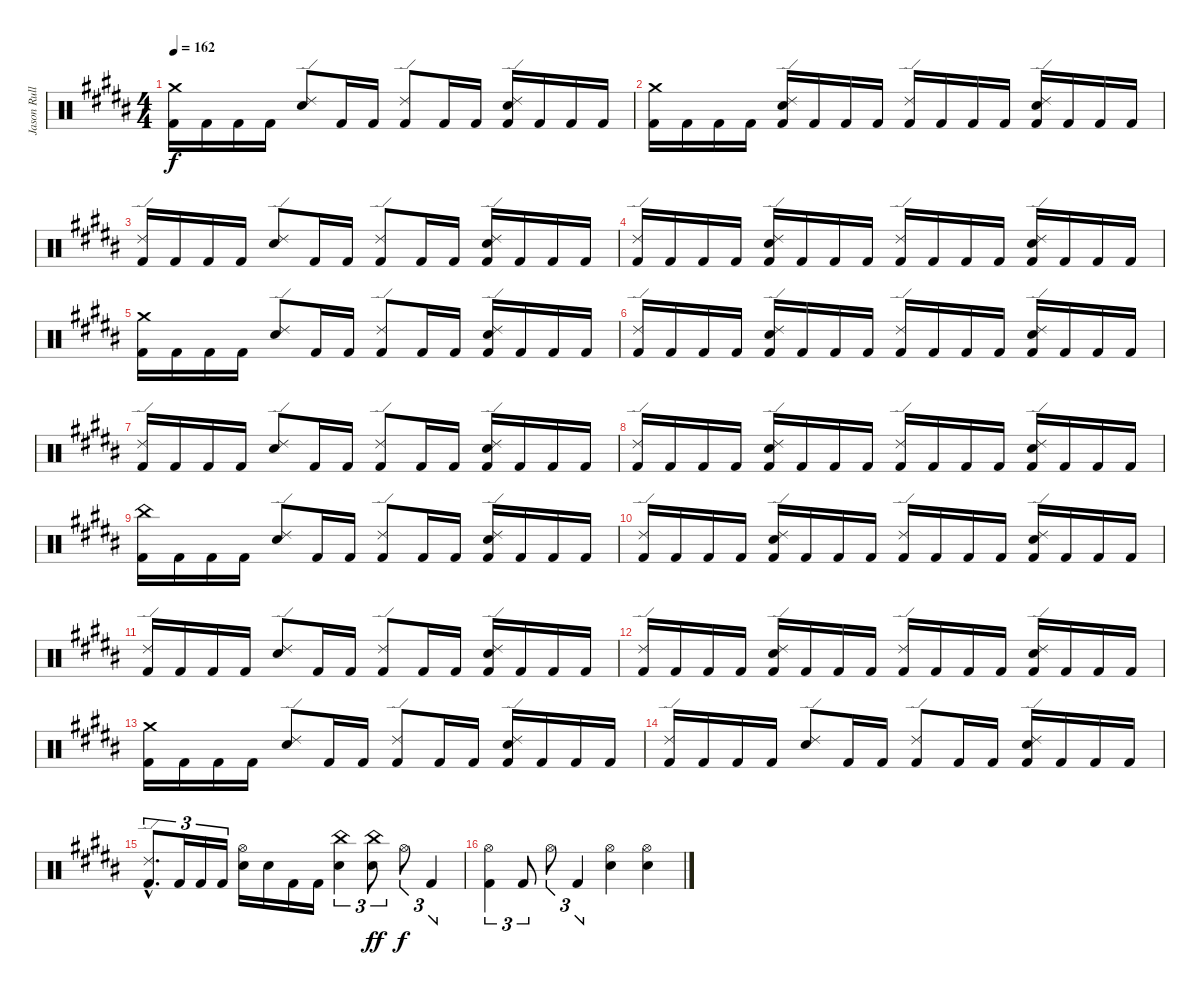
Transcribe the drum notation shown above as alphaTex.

\track ("Jason Rullo" "Jason Rull") {instrument percussion}
\staff {score}
\articulation defaults
\ts (4 4)
\tempo 162
\clef neutral
\ks g#minor
("Kick (hit) 2" "Crash medium (hit)").16{dy f} "Kick (hit) 2".16 "Kick (hit) 2".16 "Kick (hit) 2".16 ("Electric Snare (hit)" "Ride (edge) 2").8 "Kick (hit) 2".16 "Kick (hit) 2".16 ("Kick (hit) 2" "Ride (edge) 2").8 "Kick (hit) 2".16 "Kick (hit) 2".16 ("Kick (hit) 2" "Electric Snare (hit)" "Ride (edge) 2").16 "Kick (hit) 2".16 "Kick (hit) 2".16 "Kick (hit) 2".16 |
("Crash medium (hit)" "Kick (hit) 2").16 "Kick (hit) 2".16 "Kick (hit) 2".16 "Kick (hit) 2".16 ("Electric Snare (hit)" "Ride (edge) 2" "Kick (hit) 2").16 "Kick (hit) 2".16 "Kick (hit) 2".16 "Kick (hit) 2".16 ("Ride (edge) 2" "Kick (hit) 2").16 "Kick (hit) 2".16 "Kick (hit) 2".16 "Kick (hit) 2".16 ("Electric Snare (hit)" "Ride (edge) 2" "Kick (hit) 2").16 "Kick (hit) 2".16 "Kick (hit) 2".16 "Kick (hit) 2".16 |
("Ride (edge) 2" "Kick (hit) 2").16 "Kick (hit) 2".16 "Kick (hit) 2".16 "Kick (hit) 2".16 ("Electric Snare (hit)" "Ride (edge) 2").8 "Kick (hit) 2".16 "Kick (hit) 2".16 ("Kick (hit) 2" "Ride (edge) 2").8 "Kick (hit) 2".16 "Kick (hit) 2".16 ("Kick (hit) 2" "Electric Snare (hit)" "Ride (edge) 2").16 "Kick (hit) 2".16 "Kick (hit) 2".16 "Kick (hit) 2".16 |
("Ride (edge) 2" "Kick (hit) 2").16 "Kick (hit) 2".16 "Kick (hit) 2".16 "Kick (hit) 2".16 ("Electric Snare (hit)" "Ride (edge) 2" "Kick (hit) 2").16 "Kick (hit) 2".16 "Kick (hit) 2".16 "Kick (hit) 2".16 ("Ride (edge) 2" "Kick (hit) 2").16 "Kick (hit) 2".16 "Kick (hit) 2".16 "Kick (hit) 2".16 ("Electric Snare (hit)" "Ride (edge) 2" "Kick (hit) 2").16 "Kick (hit) 2".16 "Kick (hit) 2".16 "Kick (hit) 2".16 |
("Crash medium (hit)" "Kick (hit) 2").16 "Kick (hit) 2".16 "Kick (hit) 2".16 "Kick (hit) 2".16 ("Electric Snare (hit)" "Ride (edge) 2").8 "Kick (hit) 2".16 "Kick (hit) 2".16 ("Kick (hit) 2" "Ride (edge) 2").8 "Kick (hit) 2".16 "Kick (hit) 2".16 ("Kick (hit) 2" "Electric Snare (hit)" "Ride (edge) 2").16 "Kick (hit) 2".16 "Kick (hit) 2".16 "Kick (hit) 2".16 |
("Ride (edge) 2" "Kick (hit) 2").16 "Kick (hit) 2".16 "Kick (hit) 2".16 "Kick (hit) 2".16 ("Electric Snare (hit)" "Ride (edge) 2" "Kick (hit) 2").16 "Kick (hit) 2".16 "Kick (hit) 2".16 "Kick (hit) 2".16 ("Ride (edge) 2" "Kick (hit) 2").16 "Kick (hit) 2".16 "Kick (hit) 2".16 "Kick (hit) 2".16 ("Electric Snare (hit)" "Ride (edge) 2" "Kick (hit) 2").16 "Kick (hit) 2".16 "Kick (hit) 2".16 "Kick (hit) 2".16 |
("Ride (edge) 2" "Kick (hit) 2").16 "Kick (hit) 2".16 "Kick (hit) 2".16 "Kick (hit) 2".16 ("Electric Snare (hit)" "Ride (edge) 2").8 "Kick (hit) 2".16 "Kick (hit) 2".16 ("Kick (hit) 2" "Ride (edge) 2").8 "Kick (hit) 2".16 "Kick (hit) 2".16 ("Kick (hit) 2" "Electric Snare (hit)" "Ride (edge) 2").16 "Kick (hit) 2".16 "Kick (hit) 2".16 "Kick (hit) 2".16 |
("Ride (edge) 2" "Kick (hit) 2").16 "Kick (hit) 2".16 "Kick (hit) 2".16 "Kick (hit) 2".16 ("Electric Snare (hit)" "Ride (edge) 2" "Kick (hit) 2").16 "Kick (hit) 2".16 "Kick (hit) 2".16 "Kick (hit) 2".16 ("Ride (edge) 2" "Kick (hit) 2").16 "Kick (hit) 2".16 "Kick (hit) 2".16 "Kick (hit) 2".16 ("Electric Snare (hit)" "Ride (edge) 2" "Kick (hit) 2").16 "Kick (hit) 2".16 "Kick (hit) 2".16 "Kick (hit) 2".16 |
("China (hit)" "Kick (hit) 2").16 "Kick (hit) 2".16 "Kick (hit) 2".16 "Kick (hit) 2".16 ("Electric Snare (hit)" "Ride (edge) 2").8 "Kick (hit) 2".16 "Kick (hit) 2".16 ("Kick (hit) 2" "Ride (edge) 2").8 "Kick (hit) 2".16 "Kick (hit) 2".16 ("Kick (hit) 2" "Electric Snare (hit)" "Ride (edge) 2").16 "Kick (hit) 2".16 "Kick (hit) 2".16 "Kick (hit) 2".16 |
("Ride (edge) 2" "Kick (hit) 2").16 "Kick (hit) 2".16 "Kick (hit) 2".16 "Kick (hit) 2".16 ("Electric Snare (hit)" "Ride (edge) 2" "Kick (hit) 2").16 "Kick (hit) 2".16 "Kick (hit) 2".16 "Kick (hit) 2".16 ("Ride (edge) 2" "Kick (hit) 2").16 "Kick (hit) 2".16 "Kick (hit) 2".16 "Kick (hit) 2".16 ("Electric Snare (hit)" "Ride (edge) 2" "Kick (hit) 2").16 "Kick (hit) 2".16 "Kick (hit) 2".16 "Kick (hit) 2".16 |
("Ride (edge) 2" "Kick (hit) 2").16 "Kick (hit) 2".16 "Kick (hit) 2".16 "Kick (hit) 2".16 ("Electric Snare (hit)" "Ride (edge) 2").8 "Kick (hit) 2".16 "Kick (hit) 2".16 ("Kick (hit) 2" "Ride (edge) 2").8 "Kick (hit) 2".16 "Kick (hit) 2".16 ("Kick (hit) 2" "Electric Snare (hit)" "Ride (edge) 2").16 "Kick (hit) 2".16 "Kick (hit) 2".16 "Kick (hit) 2".16 |
("Ride (edge) 2" "Kick (hit) 2").16 "Kick (hit) 2".16 "Kick (hit) 2".16 "Kick (hit) 2".16 ("Electric Snare (hit)" "Ride (edge) 2" "Kick (hit) 2").16 "Kick (hit) 2".16 "Kick (hit) 2".16 "Kick (hit) 2".16 ("Ride (edge) 2" "Kick (hit) 2").16 "Kick (hit) 2".16 "Kick (hit) 2".16 "Kick (hit) 2".16 ("Electric Snare (hit)" "Ride (edge) 2" "Kick (hit) 2").16 "Kick (hit) 2".16 "Kick (hit) 2".16 "Kick (hit) 2".16 |
("Crash medium (hit)" "Kick (hit) 2").16 "Kick (hit) 2".16 "Kick (hit) 2".16 "Kick (hit) 2".16 ("Electric Snare (hit)" "Ride (edge) 2").8 "Kick (hit) 2".16 "Kick (hit) 2".16 ("Kick (hit) 2" "Ride (edge) 2").8 "Kick (hit) 2".16 "Kick (hit) 2".16 ("Kick (hit) 2" "Electric Snare (hit)" "Ride (edge) 2").16 "Kick (hit) 2".16 "Kick (hit) 2".16 "Kick (hit) 2".16 |
("Ride (edge) 2" "Kick (hit) 2").16 "Kick (hit) 2".16 "Kick (hit) 2".16 "Kick (hit) 2".16 ("Electric Snare (hit)" "Ride (edge) 2").8 "Kick (hit) 2".16 "Kick (hit) 2".16 ("Kick (hit) 2" "Ride (edge) 2").8 "Kick (hit) 2".16 "Kick (hit) 2".16 ("Kick (hit) 2" "Electric Snare (hit)" "Ride (edge) 2").16 "Kick (hit) 2".16 "Kick (hit) 2".16 "Kick (hit) 2".16 |
("Kick (hit) 2"{hac} "Ride (edge) 2"{hac}).8{d tu (3 2)} "Kick (hit) 2".16{tu (3 2)} "Kick (hit) 2".16{tu (3 2)} "Kick (hit) 2".16{tu (3 2)} ("Hi-Hat (open)" "Electric Snare (hit)").16 "Electric Snare (hit)".16 "Kick (hit) 2".16 "Kick (hit) 2".16 ("China (hit)" "Electric Snare (hit)").4{tu (3 2)} ("China (hit)" "Electric Snare (hit)").8{tu (3 2) dy ff} "Hi-Hat (open)".8{tu (3 2) dy f} "Kick (hit) 2".4{tu (3 2)} |
("Hi-Hat (open)" "Kick (hit) 2").4{tu (3 2)} "Kick (hit) 2".8{tu (3 2)} "Hi-Hat (open)".8{tu (3 2)} "Kick (hit) 2".4{tu (3 2)} ("Hi-Hat (open)" "Electric Snare (hit)").4 ("Hi-Hat (open)" "Electric Snare (hit)").4
